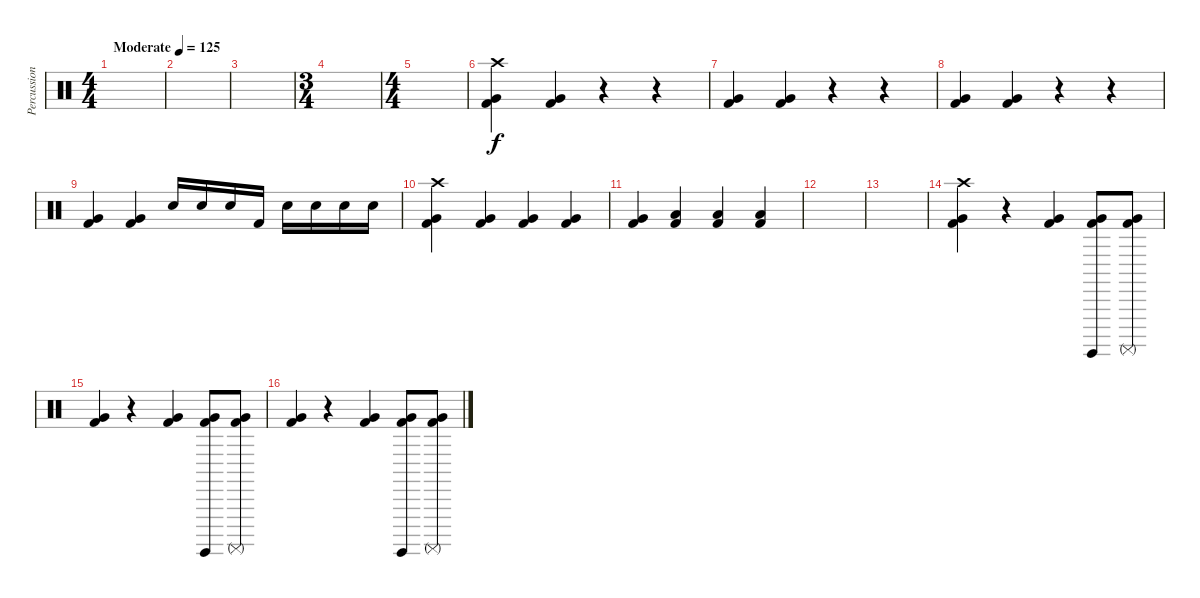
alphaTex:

\track ("Percussion" "Percussion") {instrument percussion}
\staff {score}
\articulation defaults
\ts (4 4)
\tempo (125 "Moderate")
\clef neutral
\ks c
|
|
|
\ts (3 4)
|
\ts (4 4)
|
("Crash high (hit)" "Very Low Tom (hit)" "Kick (hit) 2").4 ("Very Low Tom (hit)" "Kick (hit) 2").4 r.4 r.4 |
("Very Low Tom (hit)" "Kick (hit) 2").4 ("Very Low Tom (hit)" "Kick (hit) 2").4 r.4 r.4 |
("Very Low Tom (hit)" "Kick (hit) 2").4 ("Very Low Tom (hit)" "Kick (hit) 2").4 r.4 r.4 |
("Very Low Tom (hit)" "Kick (hit) 2").4 ("Very Low Tom (hit)" "Kick (hit) 2").4 "Snare (hit) 2".16 "Snare (hit) 2".16 "Snare (hit) 2".16 "Kick (hit) 2".16 "Snare (hit) 2".16 "Snare (hit) 2".16 "Snare (hit) 2".16 "Snare (hit) 2".16 |
("Crash high (hit)" "Very Low Tom (hit)" "Kick (hit) 2").4 ("Very Low Tom (hit)" "Kick (hit) 2").4 ("Very Low Tom (hit)" "Kick (hit) 2").4 ("Very Low Tom (hit)" "Kick (hit) 2").4 |
("Very Low Tom (hit)" "Kick (hit) 2").4 ("Low Floor Tom (hit)" "Kick (hit) 2").4 ("Low Floor Tom (hit)" "Kick (hit) 2").4 ("Low Floor Tom (hit)" "Kick (hit) 2").4 |
|
|
("Crash high (hit)" "Very Low Tom (hit)" "Kick (hit) 2").4 r.4 ("Very Low Tom (hit)" "Kick (hit) 2").4 ("Surdo (hit)" "Very Low Tom (hit)" "Kick (hit) 2").8 ("Surdo (mute)" "Very Low Tom (hit)" "Kick (hit) 2").8 |
("Very Low Tom (hit)" "Kick (hit) 2").4 r.4 ("Very Low Tom (hit)" "Kick (hit) 2").4 ("Surdo (hit)" "Very Low Tom (hit)" "Kick (hit) 2").8 ("Surdo (mute)" "Very Low Tom (hit)" "Kick (hit) 2").8 |
("Very Low Tom (hit)" "Kick (hit) 2").4 r.4 ("Very Low Tom (hit)" "Kick (hit) 2").4 ("Surdo (hit)" "Very Low Tom (hit)" "Kick (hit) 2").8 ("Surdo (mute)" "Very Low Tom (hit)" "Kick (hit) 2").8
